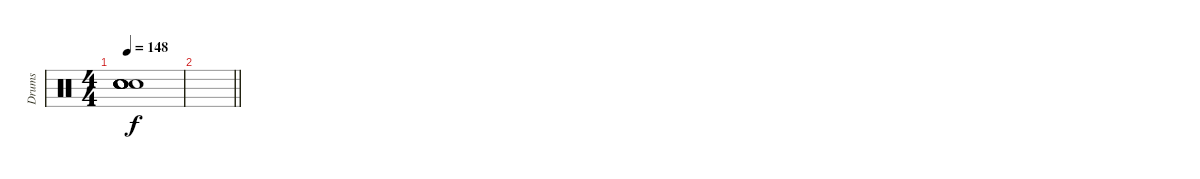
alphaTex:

\track ("Drums" "Drums") {instrument percussion}
\staff {score}
\articulation defaults
\ts (4 4)
\tempo 148
\clef neutral
\ks c
("Snare (hit)"{t} "Snare (hit)"{t} "Snare (hit)"{t} "Snare (hit)"{t} "Snare (hit)"{t} "Snare (hit)"{t}).1{dy f} |
\barLineRight lightlight
